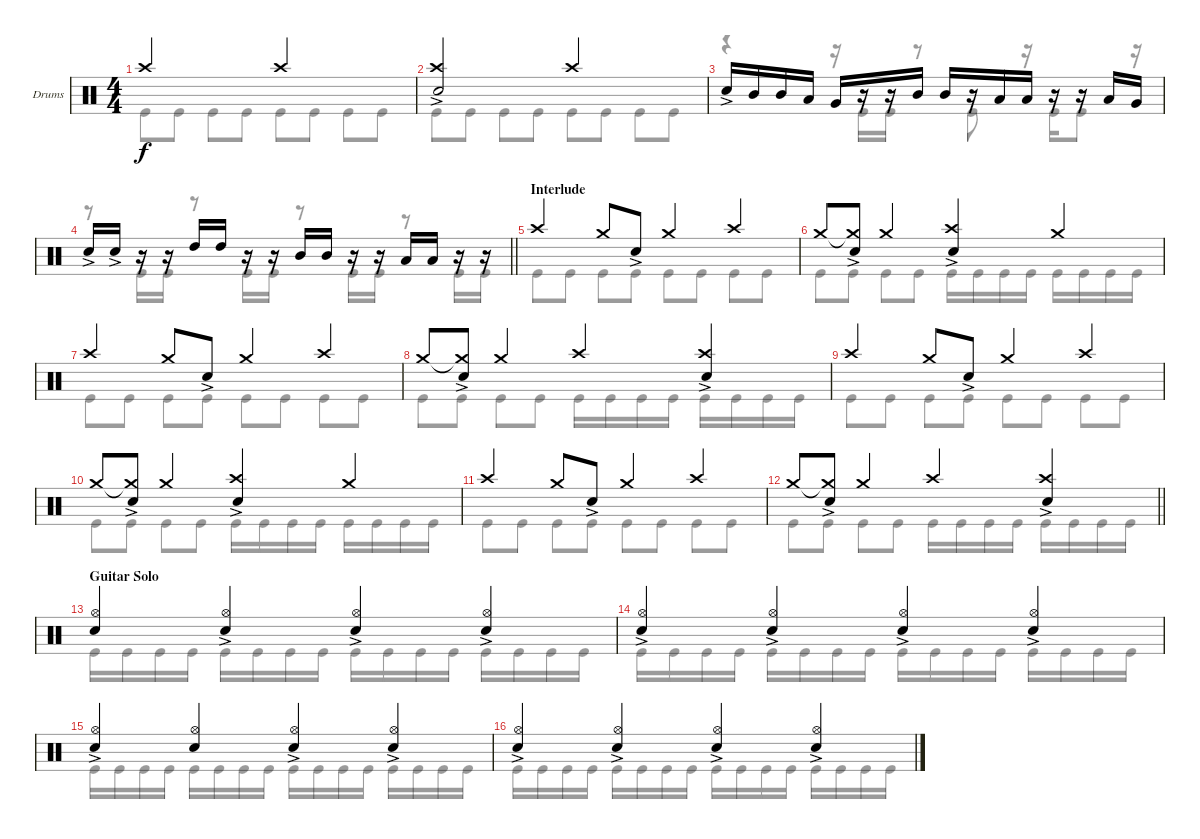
\bracketExtendMode groupsimilarinstruments
\firstSystemTrackNameOrientation horizontal
\otherSystemsTrackNameOrientation horizontal
\track ("Drumkit" "Drums") {instrument percussion}
\staff {score}
\articulation defaults
\voice
\ts (4 4)
\tempo (184 hide)
\clef neutral
\ks c "Crash high (hit)".2{dy f} "Crash high (hit)".2
|
("Crash high (hit)" "Snare (hit) 2"{ac}).2 "Crash high (hit)".2 |
"Snare (hit) 2"{ac}.16 "Mid Tom (hit)".16 "Mid Tom (hit)".16 "Low Tom (hit)".16 "Very Low Tom (hit)".16 r.16 r.16 "Mid Tom (hit)".16 "Mid Tom (hit)".16 r.16 "Low Tom (hit)".16 "Low Tom (hit)".16 r.16 r.16 "Low Tom (hit)".16 "Very Low Tom (hit)".16 |
\tempo (184 "Driving Rock" 1 hide)
\barLineRight lightlight "Snare (hit) 2"{ac}.16 "Snare (hit) 2"{ac}.16
r.16 r.16 "High Tom (hit)".16 "High Tom (hit)".16 r.16 r.16 "Mid Tom (hit)".16 "Mid Tom (hit)".16 r.16 r.16 "Low Tom (hit)".16 "Low Tom (hit)".16 r.16 r.16 |
\section ("" "Interlude")
\tempo (184 "Driving Rock" hide)
"Crash high (hit)".4 "Crash medium (hit)".8 "Snare (hit) 2"{ac}.8 "Crash medium (hit)".4 "Crash high (hit)".4 |
"Crash medium (hit)".8 ("Crash medium (hit)"{t} "Snare (hit) 2"{ac}).8 "Crash medium (hit)".4 ("Crash high (hit)" "Snare (hit) 2"{ac}).4 "Crash medium (hit)".4 |
"Crash high (hit)".4 "Crash medium (hit)".8 "Snare (hit) 2"{ac}.8 "Crash medium (hit)".4 "Crash high (hit)".4 |
"Crash medium (hit)".8 ("Crash medium (hit)"{t} "Snare (hit) 2"{ac}).8 "Crash medium (hit)".4 "Crash high (hit)".4 ("Crash high (hit)" "Snare (hit) 2"{ac}).4 |
"Crash high (hit)".4 "Crash medium (hit)".8 "Snare (hit) 2"{ac}.8 "Crash medium (hit)".4 "Crash high (hit)".4 |
"Crash medium (hit)".8 ("Crash medium (hit)"{t} "Snare (hit) 2"{ac}).8 "Crash medium (hit)".4 ("Crash high (hit)" "Snare (hit) 2"{ac}).4 "Crash medium (hit)".4 |
"Crash high (hit)".4 "Crash medium (hit)".8 "Snare (hit) 2"{ac}.8 "Crash medium (hit)".4 "Crash high (hit)".4 |
\barLineRight lightlight "Crash medium (hit)".8
("Crash medium (hit)"{t} "Snare (hit) 2"{ac}).8 "Crash medium (hit)".4 "Crash high (hit)".4 ("Crash high (hit)" "Snare (hit) 2"{ac}).4 |
\section ("" "Guitar Solo")
("Hi-Hat (open)" "Snare (hit) 2").4 ("Hi-Hat (open)" "Snare (hit) 2"{ac}).4 ("Hi-Hat (open)" "Snare (hit) 2"{ac}).4 ("Hi-Hat (open)" "Snare (hit) 2"{ac}).4 |
("Hi-Hat (open)" "Snare (hit) 2"{ac}).4 ("Hi-Hat (open)" "Snare (hit) 2"{ac}).4 ("Hi-Hat (open)" "Snare (hit) 2"{ac}).4 ("Hi-Hat (open)" "Snare (hit) 2"{ac}).4 |
("Hi-Hat (open)" "Snare (hit) 2"{ac}).4 ("Hi-Hat (open)" "Snare (hit) 2").4 ("Hi-Hat (open)" "Snare (hit) 2"{ac}).4 ("Hi-Hat (open)" "Snare (hit) 2"{ac}).4 |
("Hi-Hat (open)" "Snare (hit) 2"{ac}).4 ("Hi-Hat (open)" "Snare (hit) 2"{ac}).4 ("Hi-Hat (open)" "Snare (hit) 2"{ac}).4 ("Hi-Hat (open)" "Snare (hit) 2"{ac}).4
\voice
\clef neutral
\ottava regular
\simile none
\ks c "Kick (hit)".8{dy f} "Kick (hit)".8 "Kick (hit)".8 "Kick (hit)".8 "Kick (hit)".8 "Kick (hit)".8 "Kick (hit)".8 "Kick (hit)".8
|
"Kick (hit)".8 "Kick (hit)".8 "Kick (hit)".8 "Kick (hit)".8 "Kick (hit)".8 "Kick (hit)".8 "Kick (hit)".8 "Kick (hit)".8 |
r.4 r.16 "Kick (hit)".16 "Kick (hit)".16 r.8 "Kick (hit)".8 r.16 "Kick (hit)".16 "Kick (hit)".8 r.16 |
\barLineRight lightlight
r.8 "Kick (hit)".16 "Kick (hit)".16 r.8 "Kick (hit)".16 "Kick (hit)".16 r.8 "Kick (hit)".16 "Kick (hit)".16 r.8 "Kick (hit)".16 "Kick (hit)".16 |
"Kick (hit)".8 "Kick (hit)".8 "Kick (hit)".8 "Kick (hit)".8 "Kick (hit)".8 "Kick (hit)".8 "Kick (hit)".8 "Kick (hit)".8 |
"Kick (hit)".8 "Kick (hit)".8 "Kick (hit)".8 "Kick (hit)".8 "Kick (hit)".16 "Kick (hit)".16 "Kick (hit)".16 "Kick (hit)".16 "Kick (hit)".16 "Kick (hit)".16 "Kick (hit)".16 "Kick (hit)".16 |
"Kick (hit)".8 "Kick (hit)".8 "Kick (hit)".8 "Kick (hit)".8 "Kick (hit)".8 "Kick (hit)".8 "Kick (hit)".8 "Kick (hit)".8 |
"Kick (hit)".8 "Kick (hit)".8 "Kick (hit)".8 "Kick (hit)".8 "Kick (hit)".16 "Kick (hit)".16 "Kick (hit)".16 "Kick (hit)".16 "Kick (hit)".16 "Kick (hit)".16 "Kick (hit)".16 "Kick (hit)".16 |
"Kick (hit)".8 "Kick (hit)".8 "Kick (hit)".8 "Kick (hit)".8 "Kick (hit)".8 "Kick (hit)".8 "Kick (hit)".8 "Kick (hit)".8 |
"Kick (hit)".8 "Kick (hit)".8 "Kick (hit)".8 "Kick (hit)".8 "Kick (hit)".16 "Kick (hit)".16 "Kick (hit)".16 "Kick (hit)".16 "Kick (hit)".16 "Kick (hit)".16 "Kick (hit)".16 "Kick (hit)".16 |
"Kick (hit)".8 "Kick (hit)".8 "Kick (hit)".8 "Kick (hit)".8 "Kick (hit)".8 "Kick (hit)".8 "Kick (hit)".8 "Kick (hit)".8 |
\barLineRight lightlight "Kick (hit)".8 "Kick (hit)".8 "Kick (hit)".8 "Kick (hit)".8 "Kick (hit)".16 "Kick (hit)".16 "Kick (hit)".16 "Kick (hit)".16 "Kick (hit)".16 "Kick (hit)".16 "Kick (hit)".16 "Kick (hit)".16
|
"Kick (hit)".16 "Kick (hit)".16 "Kick (hit)".16 "Kick (hit)".16 "Kick (hit)".16 "Kick (hit)".16 "Kick (hit)".16 "Kick (hit)".16 "Kick (hit)".16 "Kick (hit)".16 "Kick (hit)".16 "Kick (hit)".16 "Kick (hit)".16 "Kick (hit)".16 "Kick (hit)".16 "Kick (hit)".16 |
"Kick (hit)".16 "Kick (hit)".16 "Kick (hit)".16 "Kick (hit)".16 "Kick (hit)".16 "Kick (hit)".16 "Kick (hit)".16 "Kick (hit)".16 "Kick (hit)".16 "Kick (hit)".16 "Kick (hit)".16 "Kick (hit)".16 "Kick (hit)".16 "Kick (hit)".16 "Kick (hit)".16 "Kick (hit)".16 |
"Kick (hit)".16 "Kick (hit)".16 "Kick (hit)".16 "Kick (hit)".16 "Kick (hit)".16 "Kick (hit)".16 "Kick (hit)".16 "Kick (hit)".16 "Kick (hit)".16 "Kick (hit)".16 "Kick (hit)".16 "Kick (hit)".16 "Kick (hit)".16 "Kick (hit)".16 "Kick (hit)".16 "Kick (hit)".16 |
"Kick (hit)".16 "Kick (hit)".16 "Kick (hit)".16 "Kick (hit)".16 "Kick (hit)".16 "Kick (hit)".16 "Kick (hit)".16 "Kick (hit)".16 "Kick (hit)".16 "Kick (hit)".16 "Kick (hit)".16 "Kick (hit)".16 "Kick (hit)".16 "Kick (hit)".16 "Kick (hit)".16 "Kick (hit)".16
